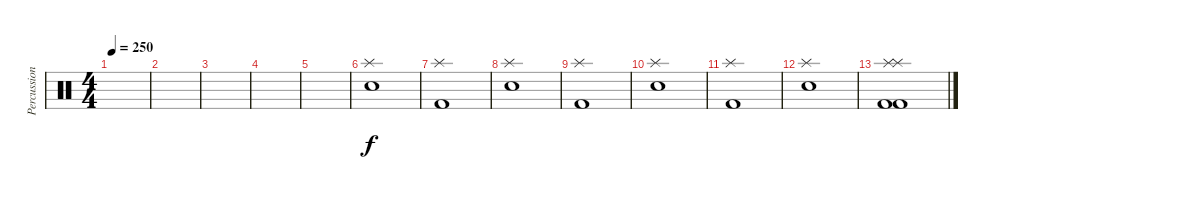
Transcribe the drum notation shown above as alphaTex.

\track ("Percussions2" "Percussion") {instrument percussion}
\staff {score}
\articulation defaults
\ts (4 4)
\tempo 250
\clef neutral
\ks c
|
|
|
|
|
("Snare (hit) 2" "Splash (hit)").1 |
("Splash (hit)" "Kick (hit) 2").1 |
("Snare (hit) 2" "Splash (hit)").1 |
("Splash (hit)" "Kick (hit) 2").1 |
("Snare (hit) 2" "Splash (hit)").1 |
("Splash (hit)" "Kick (hit) 2").1 |
("Snare (hit) 2" "Splash (hit)").1 |
("Splash (hit)" "Kick (hit) 2" "Splash (hit)" "Kick (hit) 2").1
